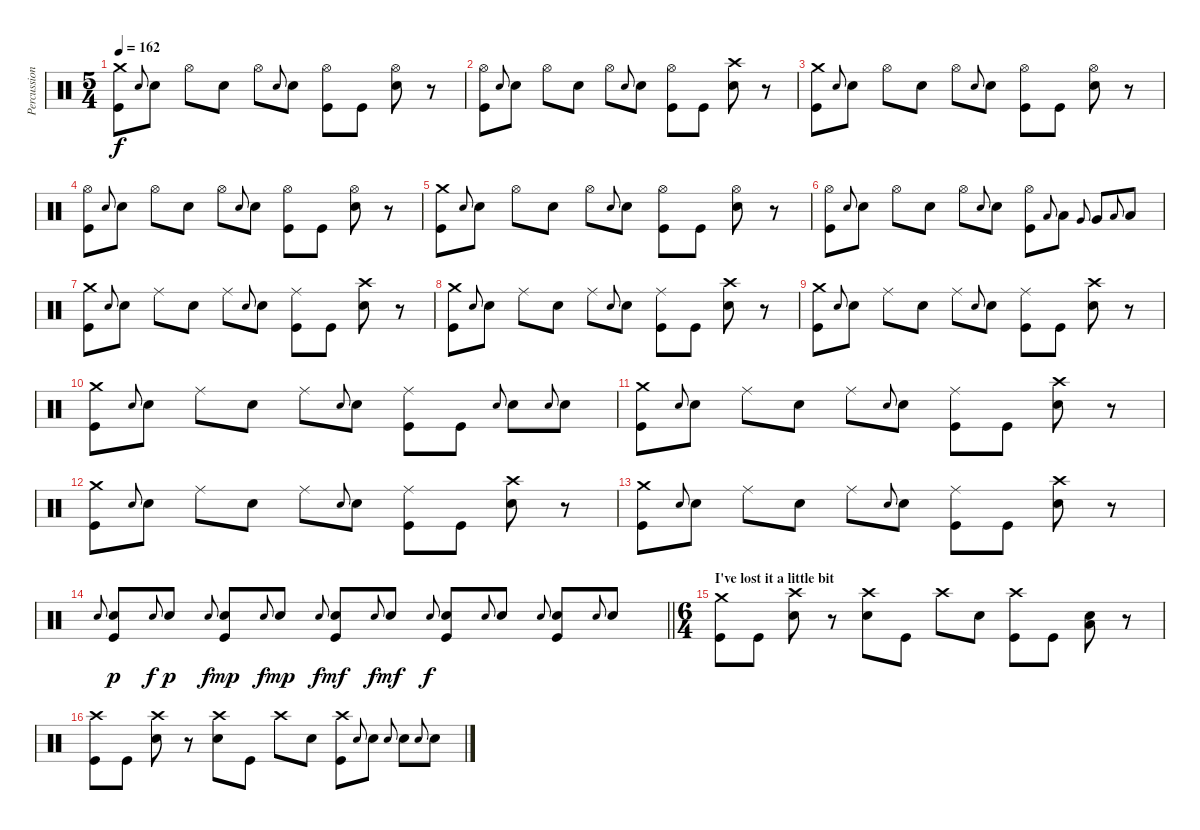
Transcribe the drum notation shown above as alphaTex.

\track ("Percussion" "Percussion") {instrument percussion}
\staff {score}
\articulation defaults
\ts (5 4)
\tempo 162
\clef neutral
\ks c
("Crash medium (hit)" "Kick (hit)").8{dy f} "Snare (hit) 2".8{gr onbeat} "Snare (hit) 2".8 "Hi-Hat (open)".8 "Snare (hit) 2".8 "Hi-Hat (open)".8 "Snare (hit) 2".8{gr onbeat} "Snare (hit) 2".8 ("Hi-Hat (open)" "Kick (hit)").8 "Kick (hit)".8 ("Hi-Hat (open)" "Snare (hit) 2").8 r.8 |
("Hi-Hat (open)" "Kick (hit)").8 "Snare (hit) 2".8{gr onbeat} "Snare (hit) 2".8 "Hi-Hat (open)".8 "Snare (hit) 2".8 "Hi-Hat (open)".8 "Snare (hit) 2".8{gr onbeat} "Snare (hit) 2".8 ("Hi-Hat (open)" "Kick (hit)").8 "Kick (hit)".8 ("Crash high (hit)" "Snare (hit) 2").8 r.8 |
("Crash medium (hit)" "Kick (hit)").8 "Snare (hit) 2".8{gr onbeat} "Snare (hit) 2".8 "Hi-Hat (open)".8 "Snare (hit) 2".8 "Hi-Hat (open)".8 "Snare (hit) 2".8{gr onbeat} "Snare (hit) 2".8 ("Hi-Hat (open)" "Kick (hit)").8 "Kick (hit)".8 ("Hi-Hat (open)" "Snare (hit) 2").8 r.8 |
("Hi-Hat (open)" "Kick (hit)").8 "Snare (hit) 2".8{gr onbeat} "Snare (hit) 2".8 "Hi-Hat (open)".8 "Snare (hit) 2".8 "Hi-Hat (open)".8 "Snare (hit) 2".8{gr onbeat} "Snare (hit) 2".8 ("Hi-Hat (open)" "Kick (hit)").8 "Kick (hit)".8 ("Hi-Hat (open)" "Snare (hit) 2").8 r.8 |
("Crash medium (hit)" "Kick (hit)").8 "Snare (hit) 2".8{gr onbeat} "Snare (hit) 2".8 "Hi-Hat (open)".8 "Snare (hit) 2".8 "Hi-Hat (open)".8 "Snare (hit) 2".8{gr onbeat} "Snare (hit) 2".8 ("Hi-Hat (open)" "Kick (hit)").8 "Kick (hit)".8 ("Hi-Hat (open)" "Snare (hit) 2").8 r.8 |
("Hi-Hat (open)" "Kick (hit)").8 "Snare (hit) 2".8{gr onbeat} "Snare (hit) 2".8 "Hi-Hat (open)".8 "Snare (hit) 2".8 "Hi-Hat (open)".8 "Snare (hit) 2".8{gr onbeat} "Snare (hit) 2".8 ("Hi-Hat (open)" "Kick (hit)").8 "Low Tom (hit)".8{gr onbeat} "Low Tom (hit)".8 "Very Low Tom (hit)".8{gr onbeat} "Very Low Tom (hit)".8 "Low Floor Tom (hit)".8{gr onbeat} "Low Floor Tom (hit)".8 |
("Crash medium (hit)" "Kick (hit)").8 "Snare (hit) 2".8{gr onbeat} "Snare (hit) 2".8 "Ride (middle)".8 "Snare (hit) 2".8 "Ride (middle)".8 "Snare (hit) 2".8{gr onbeat} "Snare (hit) 2".8 ("Ride (middle)" "Kick (hit)").8 "Kick (hit)".8 ("Crash high (hit)" "Snare (hit) 2").8 r.8 |
("Crash medium (hit)" "Kick (hit)").8 "Snare (hit) 2".8{gr onbeat} "Snare (hit) 2".8 "Ride (middle)".8 "Snare (hit) 2".8 "Ride (middle)".8 "Snare (hit) 2".8{gr onbeat} "Snare (hit) 2".8 ("Ride (middle)" "Kick (hit)").8 "Kick (hit)".8 ("Crash high (hit)" "Snare (hit) 2").8 r.8 |
("Crash medium (hit)" "Kick (hit)").8 "Snare (hit) 2".8{gr onbeat} "Snare (hit) 2".8 "Ride (middle)".8 "Snare (hit) 2".8 "Ride (middle)".8 "Snare (hit) 2".8{gr onbeat} "Snare (hit) 2".8 ("Ride (middle)" "Kick (hit)").8 "Kick (hit)".8 ("Crash high (hit)" "Snare (hit) 2").8 r.8 |
("Crash medium (hit)" "Kick (hit)").8 "Snare (hit) 2".8{gr onbeat} "Snare (hit) 2".8 "Ride (middle)".8 "Snare (hit) 2".8 "Ride (middle)".8 "Snare (hit) 2".8{gr onbeat} "Snare (hit) 2".8 ("Ride (middle)" "Kick (hit)").8 "Kick (hit)".8 "Snare (hit) 2".8{gr onbeat} "Snare (hit) 2".8 "Snare (hit) 2".8{gr onbeat} "Snare (hit) 2".8 |
("Crash medium (hit)" "Kick (hit)").8 "Snare (hit) 2".8{gr onbeat} "Snare (hit) 2".8 "Ride (middle)".8 "Snare (hit) 2".8 "Ride (middle)".8 "Snare (hit) 2".8{gr onbeat} "Snare (hit) 2".8 ("Ride (middle)" "Kick (hit)").8 "Kick (hit)".8 ("Crash high (hit)" "Snare (hit) 2").8 r.8 |
("Crash medium (hit)" "Kick (hit)").8 "Snare (hit) 2".8{gr onbeat} "Snare (hit) 2".8 "Ride (middle)".8 "Snare (hit) 2".8 "Ride (middle)".8 "Snare (hit) 2".8{gr onbeat} "Snare (hit) 2".8 ("Ride (middle)" "Kick (hit)").8 "Kick (hit)".8 ("Crash high (hit)" "Snare (hit) 2").8 r.8 |
("Crash medium (hit)" "Kick (hit)").8 "Snare (hit) 2".8{gr onbeat} "Snare (hit) 2".8 "Ride (middle)".8 "Snare (hit) 2".8 "Ride (middle)".8 "Snare (hit) 2".8{gr onbeat} "Snare (hit) 2".8 ("Ride (middle)" "Kick (hit)").8 "Kick (hit)".8 ("Crash high (hit)" "Snare (hit) 2").8 r.8 |
\barLineRight lightlight "Snare (hit) 2".8{gr onbeat}
("Snare (hit) 2" "Kick (hit)").8{dy p} "Snare (hit) 2".8{gr onbeat dy f} "Snare (hit) 2".8{dy p} "Snare (hit) 2".8{gr onbeat dy f} ("Snare (hit) 2" "Kick (hit)").8{dy mp} "Snare (hit) 2".8{gr onbeat dy f} "Snare (hit) 2".8{dy mp} "Snare (hit) 2".8{gr onbeat dy f} ("Snare (hit) 2" "Kick (hit)").8{dy mf} "Snare (hit) 2".8{gr onbeat dy f} "Snare (hit) 2".8{dy mf} "Snare (hit) 2".8{gr onbeat dy f} ("Snare (hit) 2" "Kick (hit)").8 "Snare (hit) 2".8{gr onbeat} "Snare (hit) 2".8 "Snare (hit) 2".8{gr onbeat} ("Snare (hit) 2" "Kick (hit)").8 "Snare (hit) 2".8{gr onbeat} "Snare (hit) 2".8 |
\ts (6 4)
\section ("" "I've lost it a little bit")
("Crash medium (hit)" "Kick (hit)").8 "Kick (hit)".8 ("Crash high (hit)" "Snare (hit) 2").8 r.8 ("Crash high (hit)" "Snare (hit) 2").8 "Kick (hit)".8 "Crash high (hit)".8 "Snare (hit) 2".8 ("Crash high (hit)" "Kick (hit)").8 "Kick (hit)".8 ("Low Floor Tom (hit)" "Snare (hit) 2").8 r.8 |
("Crash high (hit)" "Kick (hit)").8 "Kick (hit)".8 ("Crash high (hit)" "Snare (hit) 2").8 r.8 ("Crash high (hit)" "Snare (hit) 2").8 "Kick (hit)".8 "Crash high (hit)".8 "Snare (hit) 2".8 ("Crash high (hit)" "Kick (hit)").8 "Snare (hit) 2".8{gr onbeat} "Snare (hit) 2".8 "Snare (hit) 2".8{gr onbeat} "Snare (hit) 2".8 "Snare (hit) 2".8{gr onbeat} "Snare (hit) 2".8
